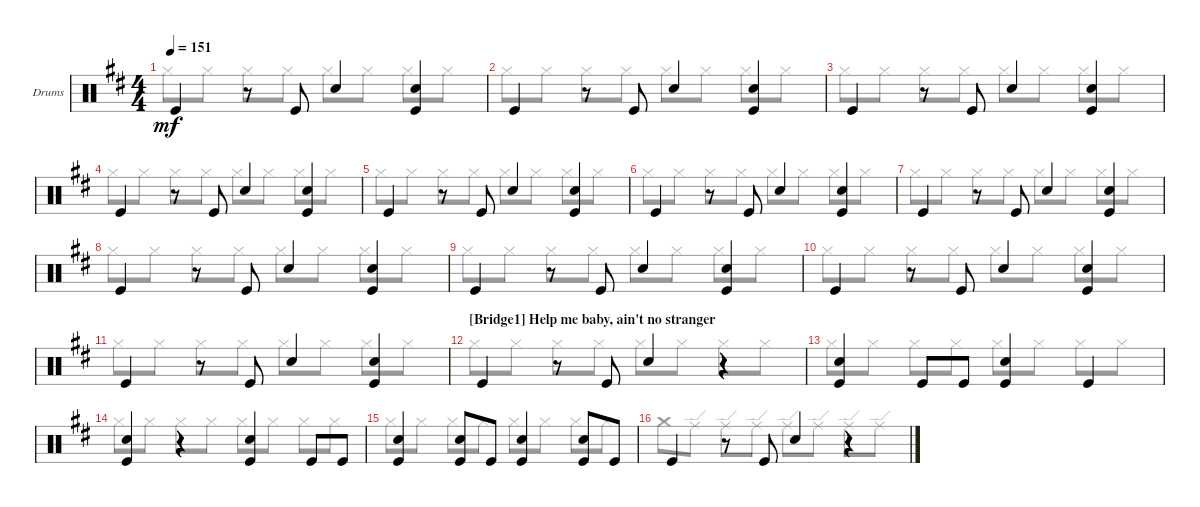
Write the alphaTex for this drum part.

\bracketExtendMode groupsimilarinstruments
\firstSystemTrackNameOrientation horizontal
\otherSystemsTrackNameOrientation horizontal
\track ("Drumkit" "Drums") {instrument percussion}
\staff {score}
\articulation defaults
\voice
\ts (4 4)
\tempo 151
\clef neutral
\ks d "Kick (hit)".4{dy mf}
r.8 "Kick (hit)".8 "Snare (hit) 2".4 ("Kick (hit)" "Snare (hit) 2").4 |
"Kick (hit)".4 r.8 "Kick (hit)".8 "Snare (hit) 2".4 ("Kick (hit)" "Snare (hit) 2").4 |
"Kick (hit)".4 r.8 "Kick (hit)".8 "Snare (hit) 2".4 ("Kick (hit)" "Snare (hit) 2").4 |
"Kick (hit)".4 r.8 "Kick (hit)".8 "Snare (hit) 2".4 ("Kick (hit)" "Snare (hit) 2").4 |
"Kick (hit)".4 r.8 "Kick (hit)".8 "Snare (hit) 2".4 ("Kick (hit)" "Snare (hit) 2").4 |
"Kick (hit)".4 r.8 "Kick (hit)".8 "Snare (hit) 2".4 ("Kick (hit)" "Snare (hit) 2").4 |
"Kick (hit)".4 r.8 "Kick (hit)".8 "Snare (hit) 2".4 ("Kick (hit)" "Snare (hit) 2").4 |
"Kick (hit)".4 r.8 "Kick (hit)".8 "Snare (hit) 2".4 ("Kick (hit)" "Snare (hit) 2").4 |
"Kick (hit)".4 r.8 "Kick (hit)".8 "Snare (hit) 2".4 ("Kick (hit)" "Snare (hit) 2").4 |
"Kick (hit)".4 r.8 "Kick (hit)".8 "Snare (hit) 2".4 ("Kick (hit)" "Snare (hit) 2").4 |
"Kick (hit)".4 r.8 "Kick (hit)".8 "Snare (hit) 2".4 ("Kick (hit)" "Snare (hit) 2").4 |
\section ("" "[Bridge1] Help me baby, ain't no stranger")
"Kick (hit)".4 r.8 "Kick (hit)".8 "Snare (hit) 2".4 r.4 |
("Kick (hit)" "Snare (hit) 2").4 "Kick (hit)".8 "Kick (hit)".8 ("Kick (hit)" "Snare (hit) 2").4 "Kick (hit)".4 |
("Kick (hit)" "Snare (hit) 2").4 r.4 ("Kick (hit)" "Snare (hit) 2").4 "Kick (hit)".8 "Kick (hit)".8 |
("Kick (hit)" "Snare (hit) 2").4 ("Kick (hit)" "Snare (hit) 2").8 "Kick (hit)".8 ("Kick (hit)" "Snare (hit) 2").4 ("Kick (hit)" "Snare (hit) 2").8 "Kick (hit)".8 |
"Kick (hit)".4 r.8 "Kick (hit)".8 "Snare (hit) 2".4 r.4
\voice
\clef neutral
\ottava regular
\simile none
\ks d "Hi-Hat (closed)".8{dy mf} "Hi-Hat (closed)".8 "Hi-Hat (closed)".8 "Hi-Hat (closed)".8 "Hi-Hat (closed)".8 "Hi-Hat (closed)".8 "Hi-Hat (closed)".8 "Hi-Hat (closed)".8
|
"Hi-Hat (closed)".8 "Hi-Hat (closed)".8 "Hi-Hat (closed)".8 "Hi-Hat (closed)".8 "Hi-Hat (closed)".8 "Hi-Hat (closed)".8 "Hi-Hat (closed)".8 "Hi-Hat (closed)".8 |
"Hi-Hat (closed)".8 "Hi-Hat (closed)".8 "Hi-Hat (closed)".8 "Hi-Hat (closed)".8 "Hi-Hat (closed)".8 "Hi-Hat (closed)".8 "Hi-Hat (closed)".8 "Hi-Hat (closed)".8 |
"Hi-Hat (closed)".8 "Hi-Hat (closed)".8 "Hi-Hat (closed)".8 "Hi-Hat (closed)".8 "Hi-Hat (closed)".8 "Hi-Hat (closed)".8 "Hi-Hat (closed)".8 "Hi-Hat (closed)".8 |
"Hi-Hat (closed)".8 "Hi-Hat (closed)".8 "Hi-Hat (closed)".8 "Hi-Hat (closed)".8 "Hi-Hat (closed)".8 "Hi-Hat (closed)".8 "Hi-Hat (closed)".8 "Hi-Hat (closed)".8 |
"Hi-Hat (closed)".8 "Hi-Hat (closed)".8 "Hi-Hat (closed)".8 "Hi-Hat (closed)".8 "Hi-Hat (closed)".8 "Hi-Hat (closed)".8 "Hi-Hat (closed)".8 "Hi-Hat (closed)".8 |
"Hi-Hat (closed)".8 "Hi-Hat (closed)".8 "Hi-Hat (closed)".8 "Hi-Hat (closed)".8 "Hi-Hat (closed)".8 "Hi-Hat (closed)".8 "Hi-Hat (closed)".8 "Hi-Hat (closed)".8 |
"Hi-Hat (closed)".8 "Hi-Hat (closed)".8 "Hi-Hat (closed)".8 "Hi-Hat (closed)".8 "Hi-Hat (closed)".8 "Hi-Hat (closed)".8 "Hi-Hat (closed)".8 "Hi-Hat (closed)".8 |
"Hi-Hat (closed)".8 "Hi-Hat (closed)".8 "Hi-Hat (closed)".8 "Hi-Hat (closed)".8 "Hi-Hat (closed)".8 "Hi-Hat (closed)".8 "Hi-Hat (closed)".8 "Hi-Hat (closed)".8 |
"Hi-Hat (closed)".8 "Hi-Hat (closed)".8 "Hi-Hat (closed)".8 "Hi-Hat (closed)".8 "Hi-Hat (closed)".8 "Hi-Hat (closed)".8 "Hi-Hat (closed)".8 "Hi-Hat (closed)".8 |
"Hi-Hat (closed)".8 "Hi-Hat (closed)".8 "Hi-Hat (closed)".8 "Hi-Hat (closed)".8 "Hi-Hat (closed)".8 "Hi-Hat (closed)".8 "Hi-Hat (closed)".8 "Hi-Hat (closed)".8 |
"Hi-Hat (closed)".8 "Hi-Hat (closed)".8 "Hi-Hat (closed)".8 "Hi-Hat (closed)".8 "Hi-Hat (closed)".8 "Hi-Hat (closed)".8 "Hi-Hat (closed)".8 "Hi-Hat (closed)".8 |
"Hi-Hat (closed)".8 "Hi-Hat (closed)".8 "Hi-Hat (closed)".8 "Hi-Hat (closed)".8 "Hi-Hat (closed)".8 "Hi-Hat (closed)".8 "Hi-Hat (closed)".8 "Hi-Hat (closed)".8 |
"Hi-Hat (closed)".8 "Hi-Hat (closed)".8 "Hi-Hat (closed)".8 "Hi-Hat (closed)".8 "Hi-Hat (closed)".8 "Hi-Hat (closed)".8 "Hi-Hat (closed)".8 "Hi-Hat (closed)".8 |
"Hi-Hat (closed)".8 "Hi-Hat (closed)".8 "Hi-Hat (closed)".8 "Hi-Hat (closed)".8 "Hi-Hat (closed)".8 "Hi-Hat (closed)".8 "Hi-Hat (closed)".8 "Hi-Hat (closed)".8 |
"Crash medium (hit)".8 "Ride (edge)".8 "Ride (edge)".8 "Ride (edge)".8 "Ride (edge)".8 "Ride (edge)".8 "Ride (edge)".8 "Ride (edge)".8
